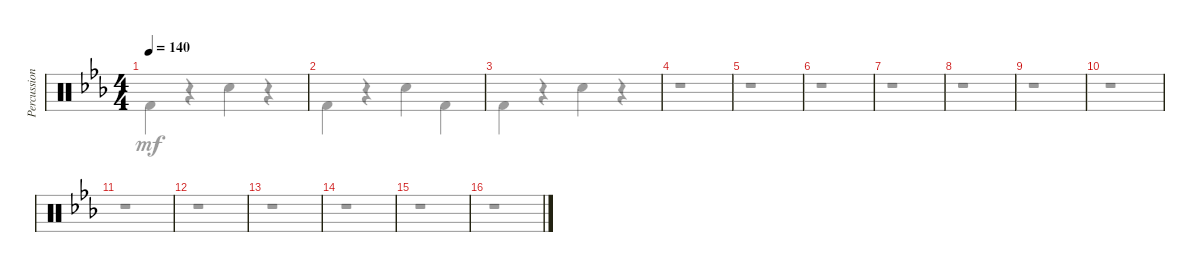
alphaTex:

\track ("Percussions" "Percussion") {instrument percussion}
\staff {score}
\articulation defaults
\voice
\ts (4 4)
\tempo 140
\clef neutral
\ks cminor
|
|
|
|
|
|
|
|
|
|
|
|
|
|
|
\voice
\clef neutral
\ks cminor "Kick (hit) 2".4{dy mf}
r.4 "Snare (hit) 2".4 r.4 |
"Kick (hit) 2".4 r.4 "Snare (hit) 2".4 "Kick (hit) 2".4 |
"Kick (hit) 2".4 r.4 "Snare (hit) 2".4 r.4 |
r.1 |
r.1 |
r.1 |
r.1 |
r.1 |
r.1 |
r.1 |
r.1 |
r.1 |
r.1 |
r.1 |
r.1 |
r.1
